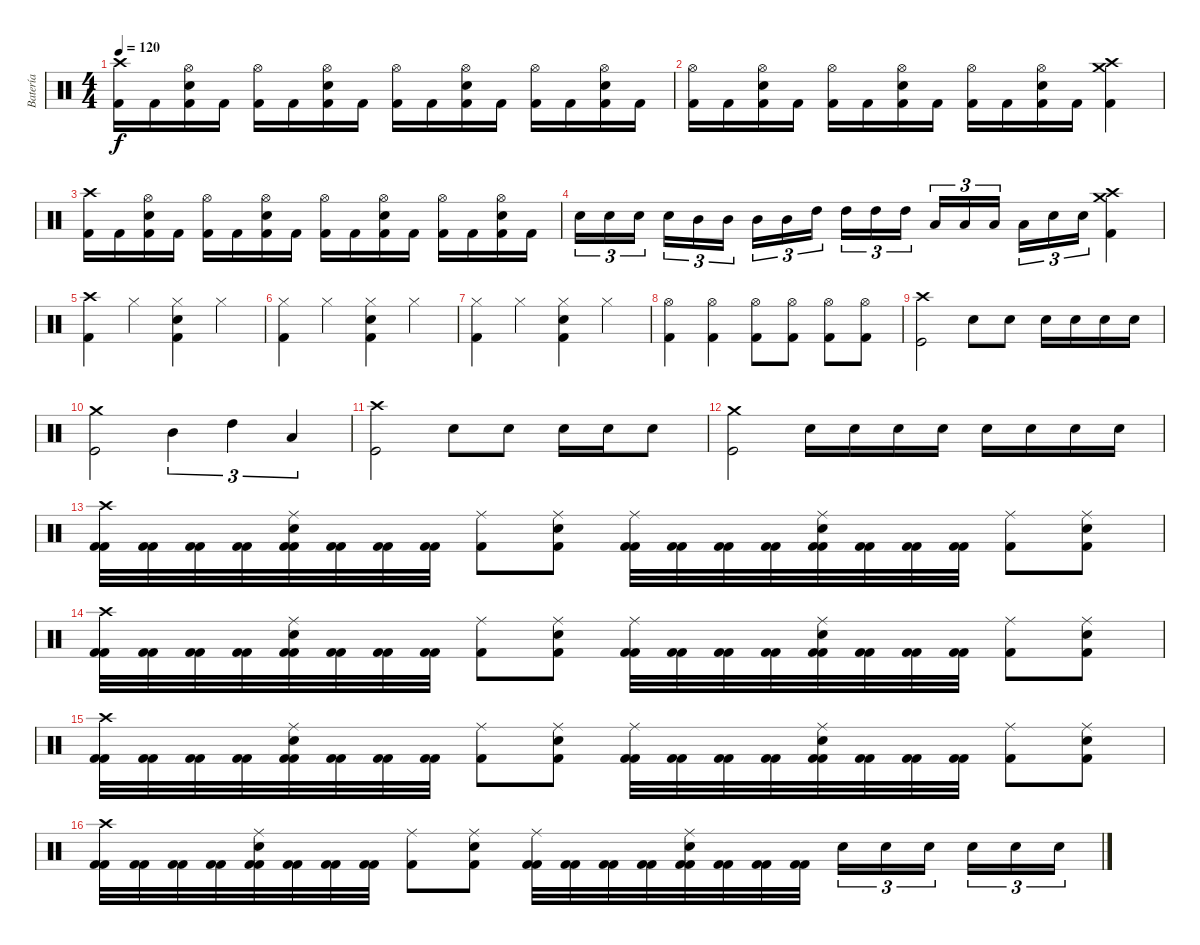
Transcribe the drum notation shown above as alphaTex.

\track ("Batería" "Batería") {instrument percussion}
\staff {score}
\articulation defaults
\ts (4 4)
\tempo 120
\clef neutral
\ks c
("Kick (hit) 2" "Crash high (hit)").16{dy f} "Kick (hit) 2".16 ("Kick (hit) 2" "Hi-Hat (open)" "Snare (hit) 2").16 "Kick (hit) 2".16 ("Kick (hit) 2" "Hi-Hat (open)").16 "Kick (hit) 2".16 ("Kick (hit) 2" "Hi-Hat (open)" "Snare (hit) 2").16 "Kick (hit) 2".16 ("Kick (hit) 2" "Hi-Hat (open)").16 "Kick (hit) 2".16 ("Kick (hit) 2" "Hi-Hat (open)" "Snare (hit) 2").16 "Kick (hit) 2".16 ("Kick (hit) 2" "Hi-Hat (open)").16 "Kick (hit) 2".16 ("Kick (hit) 2" "Hi-Hat (open)" "Snare (hit) 2").16 "Kick (hit) 2".16 |
("Kick (hit) 2" "Hi-Hat (open)").16 "Kick (hit) 2".16 ("Kick (hit) 2" "Hi-Hat (open)" "Snare (hit) 2").16 "Kick (hit) 2".16 ("Kick (hit) 2" "Hi-Hat (open)").16 "Kick (hit) 2".16 ("Kick (hit) 2" "Hi-Hat (open)" "Snare (hit) 2").16 "Kick (hit) 2".16 ("Kick (hit) 2" "Hi-Hat (open)").16 "Kick (hit) 2".16 ("Kick (hit) 2" "Hi-Hat (open)" "Snare (hit) 2").16 "Kick (hit) 2".16 ("Crash high (hit)" "Crash medium (hit)" "Kick (hit) 2").4 |
("Kick (hit) 2" "Crash high (hit)").16 "Kick (hit) 2".16 ("Kick (hit) 2" "Hi-Hat (open)" "Snare (hit) 2").16 "Kick (hit) 2".16 ("Kick (hit) 2" "Hi-Hat (open)").16 "Kick (hit) 2".16 ("Kick (hit) 2" "Hi-Hat (open)" "Snare (hit) 2").16 "Kick (hit) 2".16 ("Kick (hit) 2" "Hi-Hat (open)").16 "Kick (hit) 2".16 ("Kick (hit) 2" "Hi-Hat (open)" "Snare (hit) 2").16 "Kick (hit) 2".16 ("Kick (hit) 2" "Hi-Hat (open)").16 "Kick (hit) 2".16 ("Kick (hit) 2" "Hi-Hat (open)" "Snare (hit) 2").16 "Kick (hit) 2".16 |
"Snare (hit) 2".16{tu (3 2)} "Snare (hit) 2".16{tu (3 2)} "Snare (hit) 2".16{tu (3 2)} "Snare (hit) 2".16{tu (3 2)} "Mid Tom (hit)".16{tu (3 2)} "Mid Tom (hit)".16{tu (3 2)} "Mid Tom (hit)".16{tu (3 2)} "Mid Tom (hit)".16{tu (3 2)} "High Tom (hit)".16{tu (3 2)} "High Tom (hit)".16{tu (3 2)} "High Tom (hit)".16{tu (3 2)} "High Tom (hit)".16{tu (3 2)} "Low Tom (hit)".16{tu (3 2)} "Low Tom (hit)".16{tu (3 2)} "Low Tom (hit)".16{tu (3 2)} "Low Tom (hit)".16{tu (3 2)} "Snare (hit) 2".16{tu (3 2)} "Snare (hit) 2".16{tu (3 2)} ("Crash high (hit)" "Kick (hit) 2" "Crash medium (hit)").4 |
("Crash high (hit)" "Kick (hit) 2").4 "Hi-Hat (closed)".4 ("Hi-Hat (closed)" "Kick (hit) 2" "Snare (hit) 2").4 "Hi-Hat (closed)".4 |
("Hi-Hat (closed)" "Kick (hit) 2").4 "Hi-Hat (closed)".4 ("Hi-Hat (closed)" "Kick (hit) 2" "Snare (hit) 2").4 "Hi-Hat (closed)".4 |
("Hi-Hat (closed)" "Kick (hit) 2").4 "Hi-Hat (closed)".4 ("Hi-Hat (closed)" "Kick (hit) 2" "Snare (hit) 2").4 "Hi-Hat (closed)".4 |
("Hi-Hat (open)" "Kick (hit) 2").4 ("Hi-Hat (open)" "Kick (hit) 2").4 ("Hi-Hat (open)" "Kick (hit) 2").8 ("Hi-Hat (open)" "Kick (hit) 2").8 ("Hi-Hat (open)" "Kick (hit) 2").8 ("Hi-Hat (open)" "Kick (hit) 2").8 |
("Crash high (hit)" "Kick (hit)").2 "Snare (hit) 2".8 "Snare (hit) 2".8 "Snare (hit) 2".16 "Snare (hit) 2".16 "Snare (hit) 2".16 "Snare (hit) 2".16 |
("Crash medium (hit)" "Kick (hit)").2 "Mid Tom (hit)".4{tu (3 2)} "High Tom (hit)".4{tu (3 2)} "Low Tom (hit)".4{tu (3 2)} |
("Crash high (hit)" "Kick (hit)").2 "Snare (hit) 2".8 "Snare (hit) 2".8 "Snare (hit) 2".16 "Snare (hit) 2".16 "Snare (hit) 2".8 |
("Crash medium (hit)" "Kick (hit)").2 "Snare (hit) 2".16 "Snare (hit) 2".16 "Snare (hit) 2".16 "Snare (hit) 2".16 "Snare (hit) 2".16 "Snare (hit) 2".16 "Snare (hit) 2".16 "Snare (hit) 2".16 |
("Kick (hit) 2" "Crash high (hit)" "Kick (hit) 2").32 ("Kick (hit) 2" "Kick (hit) 2").32 ("Kick (hit) 2" "Kick (hit) 2").32 ("Kick (hit) 2" "Kick (hit) 2").32 ("Kick (hit) 2" "Ride (middle)" "Snare (hit) 2" "Kick (hit) 2").32 ("Kick (hit) 2" "Kick (hit) 2").32 ("Kick (hit) 2" "Kick (hit) 2").32 ("Kick (hit) 2" "Kick (hit) 2").32 ("Kick (hit) 2" "Ride (middle)").8 ("Kick (hit) 2" "Ride (middle)" "Snare (hit) 2").8 ("Kick (hit) 2" "Ride (middle)" "Kick (hit) 2").32 ("Kick (hit) 2" "Kick (hit) 2").32 ("Kick (hit) 2" "Kick (hit) 2").32 ("Kick (hit) 2" "Kick (hit) 2").32 ("Kick (hit) 2" "Ride (middle)" "Snare (hit) 2" "Kick (hit) 2").32 ("Kick (hit) 2" "Kick (hit) 2").32 ("Kick (hit) 2" "Kick (hit) 2").32 ("Kick (hit) 2" "Kick (hit) 2").32 ("Kick (hit) 2" "Ride (middle)").8 ("Kick (hit) 2" "Ride (middle)" "Snare (hit) 2").8 |
("Kick (hit) 2" "Crash high (hit)" "Kick (hit) 2").32 ("Kick (hit) 2" "Kick (hit) 2").32 ("Kick (hit) 2" "Kick (hit) 2").32 ("Kick (hit) 2" "Kick (hit) 2").32 ("Kick (hit) 2" "Ride (middle)" "Snare (hit) 2" "Kick (hit) 2").32 ("Kick (hit) 2" "Kick (hit) 2").32 ("Kick (hit) 2" "Kick (hit) 2").32 ("Kick (hit) 2" "Kick (hit) 2").32 ("Kick (hit) 2" "Ride (middle)").8 ("Kick (hit) 2" "Ride (middle)" "Snare (hit) 2").8 ("Kick (hit) 2" "Ride (middle)" "Kick (hit) 2").32 ("Kick (hit) 2" "Kick (hit) 2").32 ("Kick (hit) 2" "Kick (hit) 2").32 ("Kick (hit) 2" "Kick (hit) 2").32 ("Kick (hit) 2" "Ride (middle)" "Snare (hit) 2" "Kick (hit) 2").32 ("Kick (hit) 2" "Kick (hit) 2").32 ("Kick (hit) 2" "Kick (hit) 2").32 ("Kick (hit) 2" "Kick (hit) 2").32 ("Kick (hit) 2" "Ride (middle)").8 ("Kick (hit) 2" "Ride (middle)" "Snare (hit) 2").8 |
("Kick (hit) 2" "Crash high (hit)" "Kick (hit) 2").32 ("Kick (hit) 2" "Kick (hit) 2").32 ("Kick (hit) 2" "Kick (hit) 2").32 ("Kick (hit) 2" "Kick (hit) 2").32 ("Kick (hit) 2" "Ride (middle)" "Snare (hit) 2" "Kick (hit) 2").32 ("Kick (hit) 2" "Kick (hit) 2").32 ("Kick (hit) 2" "Kick (hit) 2").32 ("Kick (hit) 2" "Kick (hit) 2").32 ("Kick (hit) 2" "Ride (middle)").8 ("Kick (hit) 2" "Ride (middle)" "Snare (hit) 2").8 ("Kick (hit) 2" "Ride (middle)" "Kick (hit) 2").32 ("Kick (hit) 2" "Kick (hit) 2").32 ("Kick (hit) 2" "Kick (hit) 2").32 ("Kick (hit) 2" "Kick (hit) 2").32 ("Kick (hit) 2" "Ride (middle)" "Snare (hit) 2" "Kick (hit) 2").32 ("Kick (hit) 2" "Kick (hit) 2").32 ("Kick (hit) 2" "Kick (hit) 2").32 ("Kick (hit) 2" "Kick (hit) 2").32 ("Kick (hit) 2" "Ride (middle)").8 ("Kick (hit) 2" "Ride (middle)" "Snare (hit) 2").8 |
("Kick (hit) 2" "Crash high (hit)" "Kick (hit) 2").32 ("Kick (hit) 2" "Kick (hit) 2").32 ("Kick (hit) 2" "Kick (hit) 2").32 ("Kick (hit) 2" "Kick (hit) 2").32 ("Kick (hit) 2" "Ride (middle)" "Snare (hit) 2" "Kick (hit) 2").32 ("Kick (hit) 2" "Kick (hit) 2").32 ("Kick (hit) 2" "Kick (hit) 2").32 ("Kick (hit) 2" "Kick (hit) 2").32 ("Kick (hit) 2" "Ride (middle)").8 ("Kick (hit) 2" "Ride (middle)" "Snare (hit) 2").8 ("Kick (hit) 2" "Ride (middle)" "Kick (hit) 2").32 ("Kick (hit) 2" "Kick (hit) 2").32 ("Kick (hit) 2" "Kick (hit) 2").32 ("Kick (hit) 2" "Kick (hit) 2").32 ("Kick (hit) 2" "Ride (middle)" "Snare (hit) 2" "Kick (hit) 2").32 ("Kick (hit) 2" "Kick (hit) 2").32 ("Kick (hit) 2" "Kick (hit) 2").32 ("Kick (hit) 2" "Kick (hit) 2").32 "Snare (hit) 2".16{tu (3 2)} "Snare (hit) 2".16{tu (3 2)} "Snare (hit) 2".16{tu (3 2)} "Snare (hit) 2".16{tu (3 2)} "Snare (hit) 2".16{tu (3 2)} "Snare (hit) 2".16{tu (3 2)}
